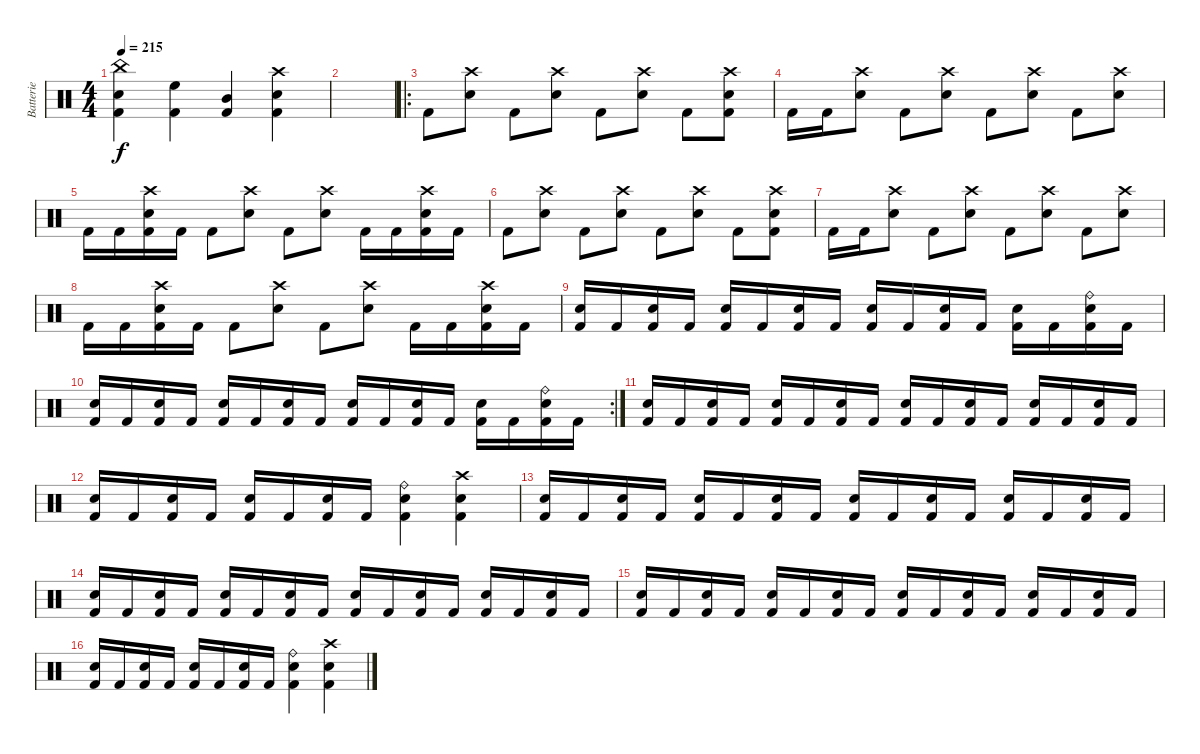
\track ("Batterie" "Batterie") {instrument percussion}
\staff {score}
\articulation defaults
\ts (4 4)
\tempo 215
\clef neutral
\ks c
("China (hit)" "Snare (hit) 2" "Kick (hit) 2").4{dy f} ("High Floor Tom (hit)" "Kick (hit) 2").4 ("Mid Tom (hit)" "Kick (hit) 2").4 ("Crash high (hit)" "Snare (hit) 2" "Kick (hit) 2").4 |
|
\ro "Kick (hit) 2".8
("Crash high (hit)" "Snare (hit) 2").8 "Kick (hit) 2".8 ("Crash high (hit)" "Snare (hit) 2").8 "Kick (hit) 2".8 ("Crash high (hit)" "Snare (hit) 2").8 "Kick (hit) 2".8 ("Crash high (hit)" "Snare (hit) 2" "Kick (hit) 2").8 |
"Kick (hit) 2".16 "Kick (hit) 2".16 ("Crash high (hit)" "Snare (hit) 2").8 "Kick (hit) 2".8 ("Crash high (hit)" "Snare (hit) 2").8 "Kick (hit) 2".8 ("Crash high (hit)" "Snare (hit) 2").8 "Kick (hit) 2".8 ("Crash high (hit)" "Snare (hit) 2").8 |
"Kick (hit) 2".16 "Kick (hit) 2".16 ("Crash high (hit)" "Snare (hit) 2" "Kick (hit) 2").16 "Kick (hit) 2".16 "Kick (hit) 2".8 ("Crash high (hit)" "Snare (hit) 2").8 "Kick (hit) 2".8 ("Crash high (hit)" "Snare (hit) 2").8 "Kick (hit) 2".16 "Kick (hit) 2".16 ("Crash high (hit)" "Snare (hit) 2" "Kick (hit) 2").16 "Kick (hit) 2".16 |
"Kick (hit) 2".8 ("Crash high (hit)" "Snare (hit) 2").8 "Kick (hit) 2".8 ("Crash high (hit)" "Snare (hit) 2").8 "Kick (hit) 2".8 ("Crash high (hit)" "Snare (hit) 2").8 "Kick (hit) 2".8 ("Crash high (hit)" "Snare (hit) 2" "Kick (hit) 2").8 |
"Kick (hit) 2".16 "Kick (hit) 2".16 ("Crash high (hit)" "Snare (hit) 2").8 "Kick (hit) 2".8 ("Crash high (hit)" "Snare (hit) 2").8 "Kick (hit) 2".8 ("Crash high (hit)" "Snare (hit) 2").8 "Kick (hit) 2".8 ("Crash high (hit)" "Snare (hit) 2").8 |
"Kick (hit) 2".16 "Kick (hit) 2".16 ("Crash high (hit)" "Snare (hit) 2" "Kick (hit) 2").16 "Kick (hit) 2".16 "Kick (hit) 2".8 ("Crash high (hit)" "Snare (hit) 2").8 "Kick (hit) 2".8 ("Crash high (hit)" "Snare (hit) 2").8 "Kick (hit) 2".16 "Kick (hit) 2".16 ("Crash high (hit)" "Snare (hit) 2" "Kick (hit) 2").16 "Kick (hit) 2".16 |
("Snare (hit) 2" "Kick (hit) 2").16 "Kick (hit) 2".16 ("Snare (hit) 2" "Kick (hit) 2").16 "Kick (hit) 2".16 ("Snare (hit) 2" "Kick (hit) 2").16 "Kick (hit) 2".16 ("Snare (hit) 2" "Kick (hit) 2").16 "Kick (hit) 2".16 ("Snare (hit) 2" "Kick (hit) 2").16 "Kick (hit) 2".16 ("Snare (hit) 2" "Kick (hit) 2").16 "Kick (hit) 2".16 ("Snare (hit) 2" "Kick (hit) 2").16 "Kick (hit) 2".16 ("Ride (bell)" "Snare (hit) 2" "Kick (hit) 2").16 "Kick (hit) 2".16 |
\rc 2
("Snare (hit) 2" "Kick (hit) 2").16 "Kick (hit) 2".16 ("Snare (hit) 2" "Kick (hit) 2").16 "Kick (hit) 2".16 ("Snare (hit) 2" "Kick (hit) 2").16 "Kick (hit) 2".16 ("Snare (hit) 2" "Kick (hit) 2").16 "Kick (hit) 2".16 ("Snare (hit) 2" "Kick (hit) 2").16 "Kick (hit) 2".16 ("Snare (hit) 2" "Kick (hit) 2").16 "Kick (hit) 2".16 ("Snare (hit) 2" "Kick (hit) 2").16 "Kick (hit) 2".16 ("Ride (bell)" "Snare (hit) 2" "Kick (hit) 2").16 "Kick (hit) 2".16 |
("Snare (hit) 2" "Kick (hit) 2").16 "Kick (hit) 2".16 ("Snare (hit) 2" "Kick (hit) 2").16 "Kick (hit) 2".16 ("Snare (hit) 2" "Kick (hit) 2").16 "Kick (hit) 2".16 ("Snare (hit) 2" "Kick (hit) 2").16 "Kick (hit) 2".16 ("Snare (hit) 2" "Kick (hit) 2").16 "Kick (hit) 2".16 ("Snare (hit) 2" "Kick (hit) 2").16 "Kick (hit) 2".16 ("Snare (hit) 2" "Kick (hit) 2").16 "Kick (hit) 2".16 ("Snare (hit) 2" "Kick (hit) 2").16 "Kick (hit) 2".16 |
("Snare (hit) 2" "Kick (hit) 2").16 "Kick (hit) 2".16 ("Snare (hit) 2" "Kick (hit) 2").16 "Kick (hit) 2".16 ("Snare (hit) 2" "Kick (hit) 2").16 "Kick (hit) 2".16 ("Snare (hit) 2" "Kick (hit) 2").16 "Kick (hit) 2".16 ("Ride (bell)" "Snare (hit) 2" "Kick (hit) 2").4 ("Crash high (hit)" "Snare (hit) 2" "Kick (hit) 2").4 |
("Snare (hit) 2" "Kick (hit) 2").16 "Kick (hit) 2".16 ("Snare (hit) 2" "Kick (hit) 2").16 "Kick (hit) 2".16 ("Snare (hit) 2" "Kick (hit) 2").16 "Kick (hit) 2".16 ("Snare (hit) 2" "Kick (hit) 2").16 "Kick (hit) 2".16 ("Snare (hit) 2" "Kick (hit) 2").16 "Kick (hit) 2".16 ("Snare (hit) 2" "Kick (hit) 2").16 "Kick (hit) 2".16 ("Snare (hit) 2" "Kick (hit) 2").16 "Kick (hit) 2".16 ("Snare (hit) 2" "Kick (hit) 2").16 "Kick (hit) 2".16 |
("Snare (hit) 2" "Kick (hit) 2").16 "Kick (hit) 2".16 ("Snare (hit) 2" "Kick (hit) 2").16 "Kick (hit) 2".16 ("Snare (hit) 2" "Kick (hit) 2").16 "Kick (hit) 2".16 ("Snare (hit) 2" "Kick (hit) 2").16 "Kick (hit) 2".16 ("Snare (hit) 2" "Kick (hit) 2").16 "Kick (hit) 2".16 ("Snare (hit) 2" "Kick (hit) 2").16 "Kick (hit) 2".16 ("Snare (hit) 2" "Kick (hit) 2").16 "Kick (hit) 2".16 ("Snare (hit) 2" "Kick (hit) 2").16 "Kick (hit) 2".16 |
("Snare (hit) 2" "Kick (hit) 2").16 "Kick (hit) 2".16 ("Snare (hit) 2" "Kick (hit) 2").16 "Kick (hit) 2".16 ("Snare (hit) 2" "Kick (hit) 2").16 "Kick (hit) 2".16 ("Snare (hit) 2" "Kick (hit) 2").16 "Kick (hit) 2".16 ("Snare (hit) 2" "Kick (hit) 2").16 "Kick (hit) 2".16 ("Snare (hit) 2" "Kick (hit) 2").16 "Kick (hit) 2".16 ("Snare (hit) 2" "Kick (hit) 2").16 "Kick (hit) 2".16 ("Snare (hit) 2" "Kick (hit) 2").16 "Kick (hit) 2".16 |
("Snare (hit) 2" "Kick (hit) 2").16 "Kick (hit) 2".16 ("Snare (hit) 2" "Kick (hit) 2").16 "Kick (hit) 2".16 ("Snare (hit) 2" "Kick (hit) 2").16 "Kick (hit) 2".16 ("Snare (hit) 2" "Kick (hit) 2").16 "Kick (hit) 2".16 ("Ride (bell)" "Snare (hit) 2" "Kick (hit) 2").4 ("Crash high (hit)" "Snare (hit) 2" "Kick (hit) 2").4
